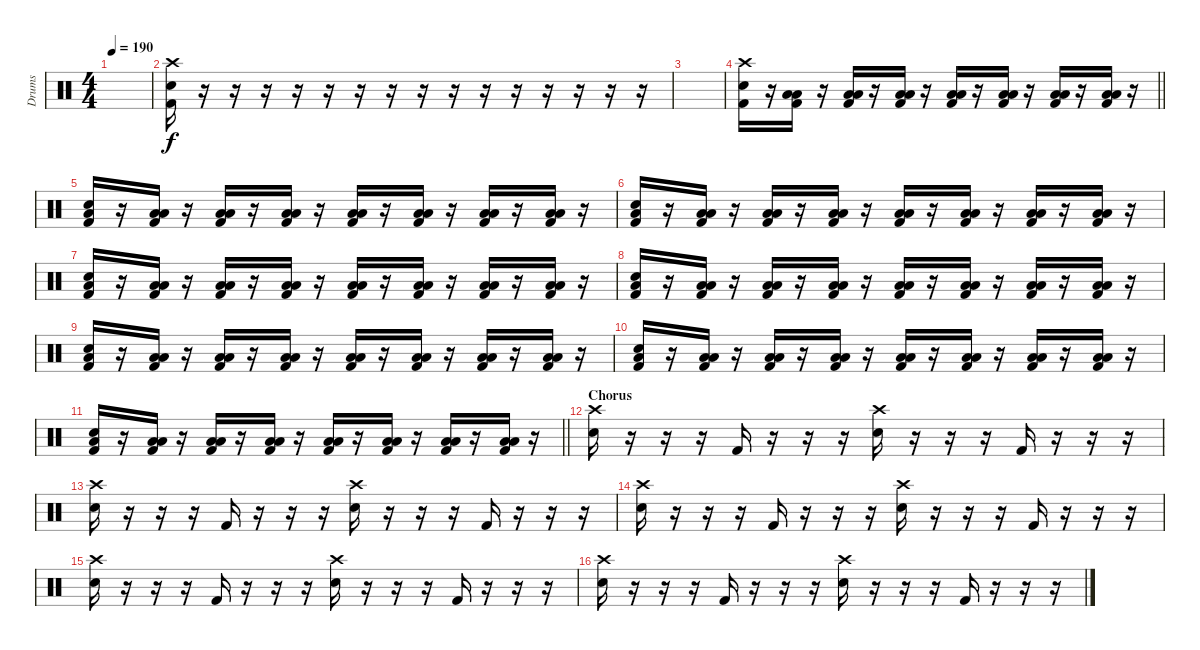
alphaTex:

\track ("Drums" "Drums") {instrument percussion}
\staff {score}
\articulation defaults
\ts (4 4)
\tempo 190
\clef neutral
\ks c
|
("Crash high (hit)" "Electric Snare (hit)" "Kick (hit) 2").16 r.16 r.16 r.16 r.16 r.16 r.16 r.16 r.16 r.16 r.16 r.16 r.16 r.16 r.16 r.16 |
|
\barLineRight lightlight
("Crash high (hit)" "Electric Snare (hit)" "Kick (hit) 2").16 r.16 ("Low Tom (hit)" "Low Floor Tom (hit)" "Kick (hit) 2").16 r.16 ("Low Tom (hit)" "Low Floor Tom (hit)" "Kick (hit) 2").16 r.16 ("Low Tom (hit)" "Low Floor Tom (hit)" "Kick (hit) 2").16 r.16 ("Low Tom (hit)" "Low Floor Tom (hit)" "Kick (hit) 2").16 r.16 ("Low Tom (hit)" "Low Floor Tom (hit)" "Kick (hit) 2").16 r.16 ("Low Tom (hit)" "Low Floor Tom (hit)" "Kick (hit) 2").16 r.16 ("Low Tom (hit)" "Low Floor Tom (hit)" "Kick (hit) 2").16 r.16 |
("Low Tom (hit)" "Electric Snare (hit)" "Kick (hit) 2").16 r.16 ("Low Tom (hit)" "Low Floor Tom (hit)" "Kick (hit) 2").16 r.16 ("Low Tom (hit)" "Low Floor Tom (hit)" "Kick (hit) 2").16 r.16 ("Low Tom (hit)" "Low Floor Tom (hit)" "Kick (hit) 2").16 r.16 ("Low Tom (hit)" "Low Floor Tom (hit)" "Kick (hit) 2").16 r.16 ("Low Tom (hit)" "Low Floor Tom (hit)" "Kick (hit) 2").16 r.16 ("Low Tom (hit)" "Low Floor Tom (hit)" "Kick (hit) 2").16 r.16 ("Low Tom (hit)" "Low Floor Tom (hit)" "Kick (hit) 2").16 r.16 |
("Low Tom (hit)" "Electric Snare (hit)" "Kick (hit) 2").16 r.16 ("Low Tom (hit)" "Low Floor Tom (hit)" "Kick (hit) 2").16 r.16 ("Low Tom (hit)" "Low Floor Tom (hit)" "Kick (hit) 2").16 r.16 ("Low Tom (hit)" "Low Floor Tom (hit)" "Kick (hit) 2").16 r.16 ("Low Tom (hit)" "Low Floor Tom (hit)" "Kick (hit) 2").16 r.16 ("Low Tom (hit)" "Low Floor Tom (hit)" "Kick (hit) 2").16 r.16 ("Low Tom (hit)" "Low Floor Tom (hit)" "Kick (hit) 2").16 r.16 ("Low Tom (hit)" "Low Floor Tom (hit)" "Kick (hit) 2").16 r.16 |
("Low Tom (hit)" "Electric Snare (hit)" "Kick (hit) 2").16 r.16 ("Low Tom (hit)" "Low Floor Tom (hit)" "Kick (hit) 2").16 r.16 ("Low Tom (hit)" "Low Floor Tom (hit)" "Kick (hit) 2").16 r.16 ("Low Tom (hit)" "Low Floor Tom (hit)" "Kick (hit) 2").16 r.16 ("Low Tom (hit)" "Low Floor Tom (hit)" "Kick (hit) 2").16 r.16 ("Low Tom (hit)" "Low Floor Tom (hit)" "Kick (hit) 2").16 r.16 ("Low Tom (hit)" "Low Floor Tom (hit)" "Kick (hit) 2").16 r.16 ("Low Tom (hit)" "Low Floor Tom (hit)" "Kick (hit) 2").16 r.16 |
("Low Tom (hit)" "Electric Snare (hit)" "Kick (hit) 2").16 r.16 ("Low Tom (hit)" "Low Floor Tom (hit)" "Kick (hit) 2").16 r.16 ("Low Tom (hit)" "Low Floor Tom (hit)" "Kick (hit) 2").16 r.16 ("Low Tom (hit)" "Low Floor Tom (hit)" "Kick (hit) 2").16 r.16 ("Low Tom (hit)" "Low Floor Tom (hit)" "Kick (hit) 2").16 r.16 ("Low Tom (hit)" "Low Floor Tom (hit)" "Kick (hit) 2").16 r.16 ("Low Tom (hit)" "Low Floor Tom (hit)" "Kick (hit) 2").16 r.16 ("Low Tom (hit)" "Low Floor Tom (hit)" "Kick (hit) 2").16 r.16 |
("Low Tom (hit)" "Electric Snare (hit)" "Kick (hit) 2").16 r.16 ("Low Tom (hit)" "Low Floor Tom (hit)" "Kick (hit) 2").16 r.16 ("Low Tom (hit)" "Low Floor Tom (hit)" "Kick (hit) 2").16 r.16 ("Low Tom (hit)" "Low Floor Tom (hit)" "Kick (hit) 2").16 r.16 ("Low Tom (hit)" "Low Floor Tom (hit)" "Kick (hit) 2").16 r.16 ("Low Tom (hit)" "Low Floor Tom (hit)" "Kick (hit) 2").16 r.16 ("Low Tom (hit)" "Low Floor Tom (hit)" "Kick (hit) 2").16 r.16 ("Low Tom (hit)" "Low Floor Tom (hit)" "Kick (hit) 2").16 r.16 |
("Low Tom (hit)" "Electric Snare (hit)" "Kick (hit) 2").16 r.16 ("Low Tom (hit)" "Low Floor Tom (hit)" "Kick (hit) 2").16 r.16 ("Low Tom (hit)" "Low Floor Tom (hit)" "Kick (hit) 2").16 r.16 ("Low Tom (hit)" "Low Floor Tom (hit)" "Kick (hit) 2").16 r.16 ("Low Tom (hit)" "Low Floor Tom (hit)" "Kick (hit) 2").16 r.16 ("Low Tom (hit)" "Low Floor Tom (hit)" "Kick (hit) 2").16 r.16 ("Low Tom (hit)" "Low Floor Tom (hit)" "Kick (hit) 2").16 r.16 ("Low Tom (hit)" "Low Floor Tom (hit)" "Kick (hit) 2").16 r.16 |
\barLineRight lightlight
("Low Tom (hit)" "Electric Snare (hit)" "Kick (hit) 2").16 r.16 ("Low Tom (hit)" "Low Floor Tom (hit)" "Kick (hit) 2").16 r.16 ("Low Tom (hit)" "Low Floor Tom (hit)" "Kick (hit) 2").16 r.16 ("Low Tom (hit)" "Low Floor Tom (hit)" "Kick (hit) 2").16 r.16 ("Low Tom (hit)" "Low Floor Tom (hit)" "Kick (hit) 2").16 r.16 ("Low Tom (hit)" "Low Floor Tom (hit)" "Kick (hit) 2").16 r.16 ("Low Tom (hit)" "Low Floor Tom (hit)" "Kick (hit) 2").16 r.16 ("Low Tom (hit)" "Low Floor Tom (hit)" "Kick (hit) 2").16 r.16 |
\section ("" "Chorus")
("Crash high (hit)" "Electric Snare (hit)").16 r.16 r.16 r.16 "Kick (hit) 2".16 r.16 r.16 r.16 ("Crash high (hit)" "Electric Snare (hit)").16 r.16 r.16 r.16 "Kick (hit) 2".16 r.16 r.16 r.16 |
("Crash high (hit)" "Electric Snare (hit)").16 r.16 r.16 r.16 "Kick (hit) 2".16 r.16 r.16 r.16 ("Crash high (hit)" "Electric Snare (hit)").16 r.16 r.16 r.16 "Kick (hit) 2".16 r.16 r.16 r.16 |
("Crash high (hit)" "Electric Snare (hit)").16 r.16 r.16 r.16 "Kick (hit) 2".16 r.16 r.16 r.16 ("Crash high (hit)" "Electric Snare (hit)").16 r.16 r.16 r.16 "Kick (hit) 2".16 r.16 r.16 r.16 |
("Crash high (hit)" "Electric Snare (hit)").16 r.16 r.16 r.16 "Kick (hit) 2".16 r.16 r.16 r.16 ("Crash high (hit)" "Electric Snare (hit)").16 r.16 r.16 r.16 "Kick (hit) 2".16 r.16 r.16 r.16 |
("Crash high (hit)" "Electric Snare (hit)").16 r.16 r.16 r.16 "Kick (hit) 2".16 r.16 r.16 r.16 ("Crash high (hit)" "Electric Snare (hit)").16 r.16 r.16 r.16 "Kick (hit) 2".16 r.16 r.16 r.16
